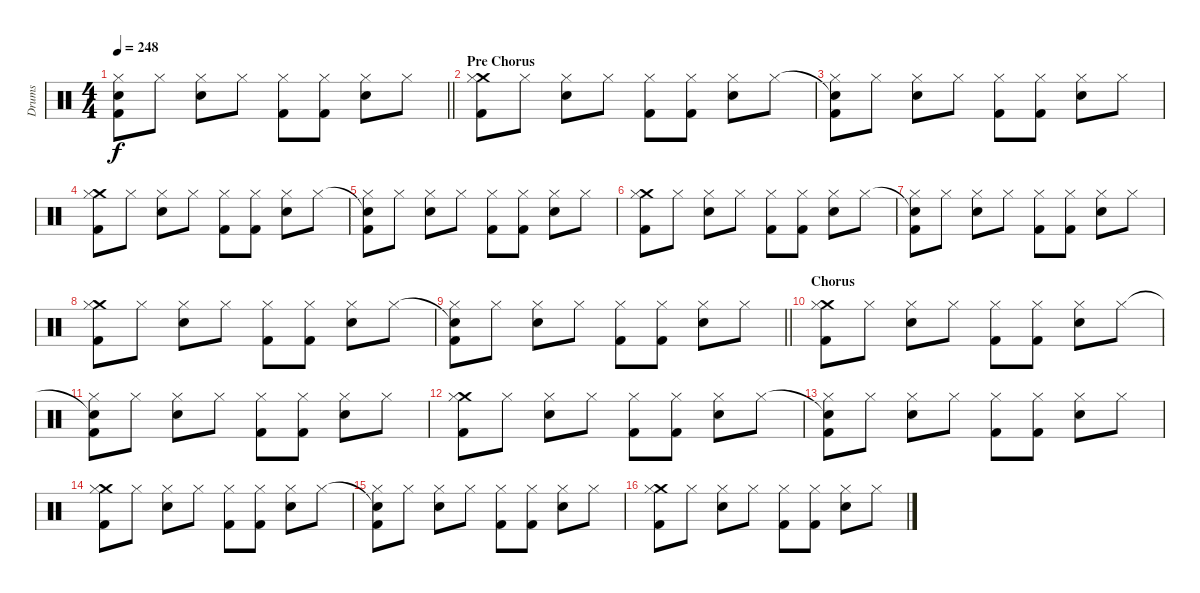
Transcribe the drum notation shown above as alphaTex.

\track ("Drums" "Drums") {instrument percussion}
\staff {score}
\articulation defaults
\ts (4 4)
\tempo 248
\clef neutral
\barLineRight lightlight
\ks c
("Snare (hit)"{t} "Hi-Hat (closed)" "Kick (hit) 2").8{dy f} "Hi-Hat (closed)".8 ("Hi-Hat (closed)" "Electric Snare (hit)").8 "Hi-Hat (closed)".8 ("Hi-Hat (closed)" "Kick (hit) 2").8 ("Hi-Hat (closed)" "Kick (hit) 2").8 ("Hi-Hat (closed)" "Electric Snare (hit)").8 "Hi-Hat (closed)".8 |
\section ("" "Pre Chorus")
("Crash medium (hit)" "Hi-Hat (closed)" "Kick (hit) 2").8 "Hi-Hat (closed)".8 ("Hi-Hat (closed)" "Electric Snare (hit)").8 "Hi-Hat (closed)".8 ("Hi-Hat (closed)" "Kick (hit) 2").8 ("Hi-Hat (closed)" "Kick (hit) 2").8 ("Hi-Hat (closed)" "Electric Snare (hit)").8 "Hi-Hat (closed)".8 |
("Snare (hit)"{t} "Hi-Hat (closed)" "Kick (hit) 2").8 "Hi-Hat (closed)".8 ("Hi-Hat (closed)" "Electric Snare (hit)").8 "Hi-Hat (closed)".8 ("Hi-Hat (closed)" "Kick (hit) 2").8 ("Hi-Hat (closed)" "Kick (hit) 2").8 ("Hi-Hat (closed)" "Electric Snare (hit)").8 "Hi-Hat (closed)".8 |
("Crash medium (hit)" "Hi-Hat (closed)" "Kick (hit) 2").8 "Hi-Hat (closed)".8 ("Hi-Hat (closed)" "Electric Snare (hit)").8 "Hi-Hat (closed)".8 ("Hi-Hat (closed)" "Kick (hit) 2").8 ("Hi-Hat (closed)" "Kick (hit) 2").8 ("Hi-Hat (closed)" "Electric Snare (hit)").8 "Hi-Hat (closed)".8 |
("Snare (hit)"{t} "Hi-Hat (closed)" "Kick (hit) 2").8 "Hi-Hat (closed)".8 ("Hi-Hat (closed)" "Electric Snare (hit)").8 "Hi-Hat (closed)".8 ("Hi-Hat (closed)" "Kick (hit) 2").8 ("Hi-Hat (closed)" "Kick (hit) 2").8 ("Hi-Hat (closed)" "Electric Snare (hit)").8 "Hi-Hat (closed)".8 |
("Crash medium (hit)" "Hi-Hat (closed)" "Kick (hit) 2").8 "Hi-Hat (closed)".8 ("Hi-Hat (closed)" "Electric Snare (hit)").8 "Hi-Hat (closed)".8 ("Hi-Hat (closed)" "Kick (hit) 2").8 ("Hi-Hat (closed)" "Kick (hit) 2").8 ("Hi-Hat (closed)" "Electric Snare (hit)").8 "Hi-Hat (closed)".8 |
("Snare (hit)"{t} "Hi-Hat (closed)" "Kick (hit) 2").8 "Hi-Hat (closed)".8 ("Hi-Hat (closed)" "Electric Snare (hit)").8 "Hi-Hat (closed)".8 ("Hi-Hat (closed)" "Kick (hit) 2").8 ("Hi-Hat (closed)" "Kick (hit) 2").8 ("Hi-Hat (closed)" "Electric Snare (hit)").8 "Hi-Hat (closed)".8 |
("Crash medium (hit)" "Hi-Hat (closed)" "Kick (hit) 2").8 "Hi-Hat (closed)".8 ("Hi-Hat (closed)" "Electric Snare (hit)").8 "Hi-Hat (closed)".8 ("Hi-Hat (closed)" "Kick (hit) 2").8 ("Hi-Hat (closed)" "Kick (hit) 2").8 ("Hi-Hat (closed)" "Electric Snare (hit)").8 "Hi-Hat (closed)".8 |
\barLineRight lightlight
("Snare (hit)"{t} "Hi-Hat (closed)" "Kick (hit) 2").8 "Hi-Hat (closed)".8 ("Hi-Hat (closed)" "Electric Snare (hit)").8 "Hi-Hat (closed)".8 ("Hi-Hat (closed)" "Kick (hit) 2").8 ("Hi-Hat (closed)" "Kick (hit) 2").8 ("Hi-Hat (closed)" "Electric Snare (hit)").8 "Hi-Hat (closed)".8 |
\section ("" "Chorus")
("Crash medium (hit)" "Hi-Hat (closed)" "Kick (hit) 2").8 "Hi-Hat (closed)".8 ("Hi-Hat (closed)" "Electric Snare (hit)").8 "Hi-Hat (closed)".8 ("Hi-Hat (closed)" "Kick (hit) 2").8 ("Hi-Hat (closed)" "Kick (hit) 2").8 ("Hi-Hat (closed)" "Electric Snare (hit)").8 "Hi-Hat (closed)".8 |
("Snare (hit)"{t} "Hi-Hat (closed)" "Kick (hit) 2").8 "Hi-Hat (closed)".8 ("Hi-Hat (closed)" "Electric Snare (hit)").8 "Hi-Hat (closed)".8 ("Hi-Hat (closed)" "Kick (hit) 2").8 ("Hi-Hat (closed)" "Kick (hit) 2").8 ("Hi-Hat (closed)" "Electric Snare (hit)").8 "Hi-Hat (closed)".8 |
("Crash medium (hit)" "Hi-Hat (closed)" "Kick (hit) 2").8 "Hi-Hat (closed)".8 ("Hi-Hat (closed)" "Electric Snare (hit)").8 "Hi-Hat (closed)".8 ("Hi-Hat (closed)" "Kick (hit) 2").8 ("Hi-Hat (closed)" "Kick (hit) 2").8 ("Hi-Hat (closed)" "Electric Snare (hit)").8 "Hi-Hat (closed)".8 |
("Snare (hit)"{t} "Hi-Hat (closed)" "Kick (hit) 2").8 "Hi-Hat (closed)".8 ("Hi-Hat (closed)" "Electric Snare (hit)").8 "Hi-Hat (closed)".8 ("Hi-Hat (closed)" "Kick (hit) 2").8 ("Hi-Hat (closed)" "Kick (hit) 2").8 ("Hi-Hat (closed)" "Electric Snare (hit)").8 "Hi-Hat (closed)".8 |
("Crash medium (hit)" "Hi-Hat (closed)" "Kick (hit) 2").8 "Hi-Hat (closed)".8 ("Hi-Hat (closed)" "Electric Snare (hit)").8 "Hi-Hat (closed)".8 ("Hi-Hat (closed)" "Kick (hit) 2").8 ("Hi-Hat (closed)" "Kick (hit) 2").8 ("Hi-Hat (closed)" "Electric Snare (hit)").8 "Hi-Hat (closed)".8 |
("Snare (hit)"{t} "Hi-Hat (closed)" "Kick (hit) 2").8 "Hi-Hat (closed)".8 ("Hi-Hat (closed)" "Electric Snare (hit)").8 "Hi-Hat (closed)".8 ("Hi-Hat (closed)" "Kick (hit) 2").8 ("Hi-Hat (closed)" "Kick (hit) 2").8 ("Hi-Hat (closed)" "Electric Snare (hit)").8 "Hi-Hat (closed)".8 |
("Crash medium (hit)" "Hi-Hat (closed)" "Kick (hit) 2").8 "Hi-Hat (closed)".8 ("Hi-Hat (closed)" "Electric Snare (hit)").8 "Hi-Hat (closed)".8 ("Hi-Hat (closed)" "Kick (hit) 2").8 ("Hi-Hat (closed)" "Kick (hit) 2").8 ("Hi-Hat (closed)" "Electric Snare (hit)").8 "Hi-Hat (closed)".8
